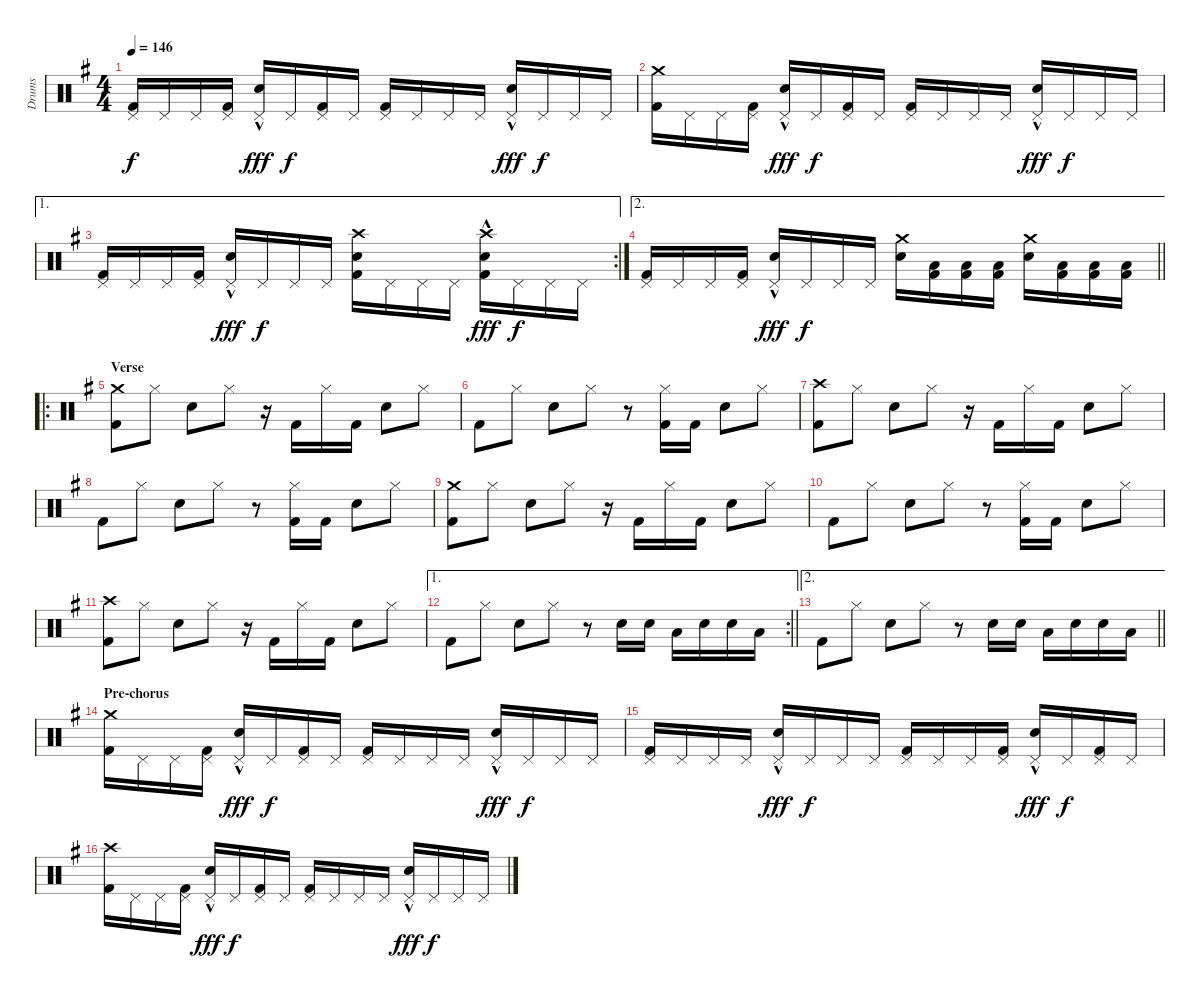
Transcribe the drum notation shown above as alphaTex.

\track ("Drums" "Drums") {instrument percussion}
\staff {score}
\articulation defaults
\ts (4 4)
\tempo 146
\clef neutral
\ks eminor
("Pedal Hi-Hat (hit)" "Kick (hit) 2").16{dy f} "Pedal Hi-Hat (hit)".16 "Pedal Hi-Hat (hit)".16 ("Pedal Hi-Hat (hit)" "Kick (hit) 2").16 ("Pedal Hi-Hat (hit)"{hac} "Snare (hit) 2").16{dy fff} "Pedal Hi-Hat (hit)".16{dy f} ("Pedal Hi-Hat (hit)" "Kick (hit) 2").16 "Pedal Hi-Hat (hit)".16 ("Pedal Hi-Hat (hit)" "Kick (hit) 2").16 "Pedal Hi-Hat (hit)".16 "Pedal Hi-Hat (hit)".16 "Pedal Hi-Hat (hit)".16 ("Pedal Hi-Hat (hit)"{hac} "Snare (hit) 2").16{dy fff} "Pedal Hi-Hat (hit)".16{dy f} "Pedal Hi-Hat (hit)".16 "Pedal Hi-Hat (hit)".16 |
("Crash medium (hit)" "Kick (hit) 2").16 "Pedal Hi-Hat (hit)".16 "Pedal Hi-Hat (hit)".16 ("Pedal Hi-Hat (hit)" "Kick (hit) 2").16 ("Pedal Hi-Hat (hit)"{hac} "Snare (hit) 2").16{dy fff} "Pedal Hi-Hat (hit)".16{dy f} ("Pedal Hi-Hat (hit)" "Kick (hit) 2").16 "Pedal Hi-Hat (hit)".16 ("Pedal Hi-Hat (hit)" "Kick (hit) 2").16 "Pedal Hi-Hat (hit)".16 "Pedal Hi-Hat (hit)".16 "Pedal Hi-Hat (hit)".16 ("Pedal Hi-Hat (hit)"{hac} "Snare (hit) 2").16{dy fff} "Pedal Hi-Hat (hit)".16{dy f} "Pedal Hi-Hat (hit)".16 "Pedal Hi-Hat (hit)".16 |
\ae 1
\rc 2
("Pedal Hi-Hat (hit)" "Kick (hit) 2").16 "Pedal Hi-Hat (hit)".16 "Pedal Hi-Hat (hit)".16 ("Pedal Hi-Hat (hit)" "Kick (hit) 2").16 ("Pedal Hi-Hat (hit)"{hac} "Snare (hit) 2").16{dy fff} "Pedal Hi-Hat (hit)".16{dy f} "Pedal Hi-Hat (hit)".16 "Pedal Hi-Hat (hit)".16 ("Crash high (hit)" "Snare (hit) 2" "Kick (hit) 2").16 "Pedal Hi-Hat (hit)".16 "Pedal Hi-Hat (hit)".16 "Pedal Hi-Hat (hit)".16 ("Crash high (hit)"{hac} "Snare (hit) 2" "Kick (hit) 2").16{dy fff} "Pedal Hi-Hat (hit)".16{dy f} "Pedal Hi-Hat (hit)".16 "Pedal Hi-Hat (hit)".16 |
\ae 2
\barLineRight lightlight
("Pedal Hi-Hat (hit)" "Kick (hit) 2").16 "Pedal Hi-Hat (hit)".16 "Pedal Hi-Hat (hit)".16 ("Pedal Hi-Hat (hit)" "Kick (hit) 2").16 ("Pedal Hi-Hat (hit)"{hac} "Snare (hit) 2").16{dy fff} "Pedal Hi-Hat (hit)".16{dy f} "Pedal Hi-Hat (hit)".16 "Pedal Hi-Hat (hit)".16 ("Crash medium (hit)" "Snare (hit) 2").16 ("Low Floor Tom (hit)" "Kick (hit) 2").16 ("Low Floor Tom (hit)" "Kick (hit) 2").16 ("Low Floor Tom (hit)" "Kick (hit) 2").16 ("Crash medium (hit)" "Snare (hit) 2").16 ("Low Floor Tom (hit)" "Kick (hit) 2").16 ("Low Floor Tom (hit)" "Kick (hit) 2").16 ("Low Floor Tom (hit)" "Kick (hit) 2").16 |
\ro
\section ("" "Verse")
("Crash medium (hit)" "Kick (hit) 2").8 "Hi-Hat (closed)".8 "Snare (hit) 2".8 "Hi-Hat (closed)".8 r.16 "Kick (hit) 2".16 "Hi-Hat (closed)".16 "Kick (hit) 2".16 "Snare (hit) 2".8 "Hi-Hat (closed)".8 |
"Kick (hit) 2".8 "Hi-Hat (closed)".8 "Snare (hit) 2".8 "Hi-Hat (closed)".8 r.8 ("Hi-Hat (closed)" "Kick (hit) 2").16 "Kick (hit) 2".16 "Snare (hit) 2".8 "Hi-Hat (closed)".8 |
("Crash high (hit)" "Kick (hit) 2").8 "Hi-Hat (closed)".8 "Snare (hit) 2".8 "Hi-Hat (closed)".8 r.16 "Kick (hit) 2".16 "Hi-Hat (closed)".16 "Kick (hit) 2".16 "Snare (hit) 2".8 "Hi-Hat (closed)".8 |
"Kick (hit) 2".8 "Hi-Hat (closed)".8 "Snare (hit) 2".8 "Hi-Hat (closed)".8 r.8 ("Hi-Hat (closed)" "Kick (hit) 2").16 "Kick (hit) 2".16 "Snare (hit) 2".8 "Hi-Hat (closed)".8 |
("Crash medium (hit)" "Kick (hit) 2").8 "Hi-Hat (closed)".8 "Snare (hit) 2".8 "Hi-Hat (closed)".8 r.16 "Kick (hit) 2".16 "Hi-Hat (closed)".16 "Kick (hit) 2".16 "Snare (hit) 2".8 "Hi-Hat (closed)".8 |
"Kick (hit) 2".8 "Hi-Hat (closed)".8 "Snare (hit) 2".8 "Hi-Hat (closed)".8 r.8 ("Hi-Hat (closed)" "Kick (hit) 2").16 "Kick (hit) 2".16 "Snare (hit) 2".8 "Hi-Hat (closed)".8 |
("Crash high (hit)" "Kick (hit) 2").8 "Hi-Hat (closed)".8 "Snare (hit) 2".8 "Hi-Hat (closed)".8 r.16 "Kick (hit) 2".16 "Hi-Hat (closed)".16 "Kick (hit) 2".16 "Snare (hit) 2".8 "Hi-Hat (closed)".8 |
\ae 1
\rc 2
\barLineRight lightlight "Kick (hit) 2".8 "Hi-Hat (closed)".8 "Snare (hit) 2".8 "Hi-Hat (closed)".8
r.8 "Snare (hit) 2".16 "Snare (hit) 2".16 "Low Floor Tom (hit)".16 "Snare (hit) 2".16 "Snare (hit) 2".16 "Low Floor Tom (hit)".16 |
\ae 2
\barLineRight lightlight "Kick (hit) 2".8 "Hi-Hat (closed)".8 "Snare (hit) 2".8 "Hi-Hat (closed)".8
r.8 "Snare (hit) 2".16 "Snare (hit) 2".16 "Low Floor Tom (hit)".16 "Snare (hit) 2".16 "Snare (hit) 2".16 "Low Floor Tom (hit)".16 |
\section ("" "Pre-chorus")
("Crash medium (hit)" "Kick (hit) 2").16 "Pedal Hi-Hat (hit)".16 "Pedal Hi-Hat (hit)".16 ("Pedal Hi-Hat (hit)" "Kick (hit) 2").16 ("Pedal Hi-Hat (hit)"{hac} "Snare (hit) 2").16{dy fff} "Pedal Hi-Hat (hit)".16{dy f} ("Pedal Hi-Hat (hit)" "Kick (hit) 2").16 "Pedal Hi-Hat (hit)".16 ("Pedal Hi-Hat (hit)" "Kick (hit) 2").16 "Pedal Hi-Hat (hit)".16 "Pedal Hi-Hat (hit)".16 "Pedal Hi-Hat (hit)".16 ("Pedal Hi-Hat (hit)"{hac} "Snare (hit) 2").16{dy fff} "Pedal Hi-Hat (hit)".16{dy f} "Pedal Hi-Hat (hit)".16 "Pedal Hi-Hat (hit)".16 |
("Pedal Hi-Hat (hit)" "Kick (hit) 2").16 "Pedal Hi-Hat (hit)".16 "Pedal Hi-Hat (hit)".16 "Pedal Hi-Hat (hit)".16 ("Pedal Hi-Hat (hit)"{hac} "Snare (hit) 2").16{dy fff} "Pedal Hi-Hat (hit)".16{dy f} "Pedal Hi-Hat (hit)".16 "Pedal Hi-Hat (hit)".16 ("Pedal Hi-Hat (hit)" "Kick (hit) 2").16 "Pedal Hi-Hat (hit)".16 "Pedal Hi-Hat (hit)".16 ("Pedal Hi-Hat (hit)" "Kick (hit) 2").16 ("Pedal Hi-Hat (hit)"{hac} "Snare (hit) 2").16{dy fff} "Pedal Hi-Hat (hit)".16{dy f} ("Pedal Hi-Hat (hit)" "Kick (hit) 2").16 "Pedal Hi-Hat (hit)".16 |
("Crash high (hit)" "Kick (hit) 2").16 "Pedal Hi-Hat (hit)".16 "Pedal Hi-Hat (hit)".16 ("Pedal Hi-Hat (hit)" "Kick (hit) 2").16 ("Pedal Hi-Hat (hit)"{hac} "Snare (hit) 2").16{dy fff} "Pedal Hi-Hat (hit)".16{dy f} ("Pedal Hi-Hat (hit)" "Kick (hit) 2").16 "Pedal Hi-Hat (hit)".16 ("Pedal Hi-Hat (hit)" "Kick (hit) 2").16 "Pedal Hi-Hat (hit)".16 "Pedal Hi-Hat (hit)".16 "Pedal Hi-Hat (hit)".16 ("Pedal Hi-Hat (hit)"{hac} "Snare (hit) 2").16{dy fff} "Pedal Hi-Hat (hit)".16{dy f} "Pedal Hi-Hat (hit)".16 "Pedal Hi-Hat (hit)".16
